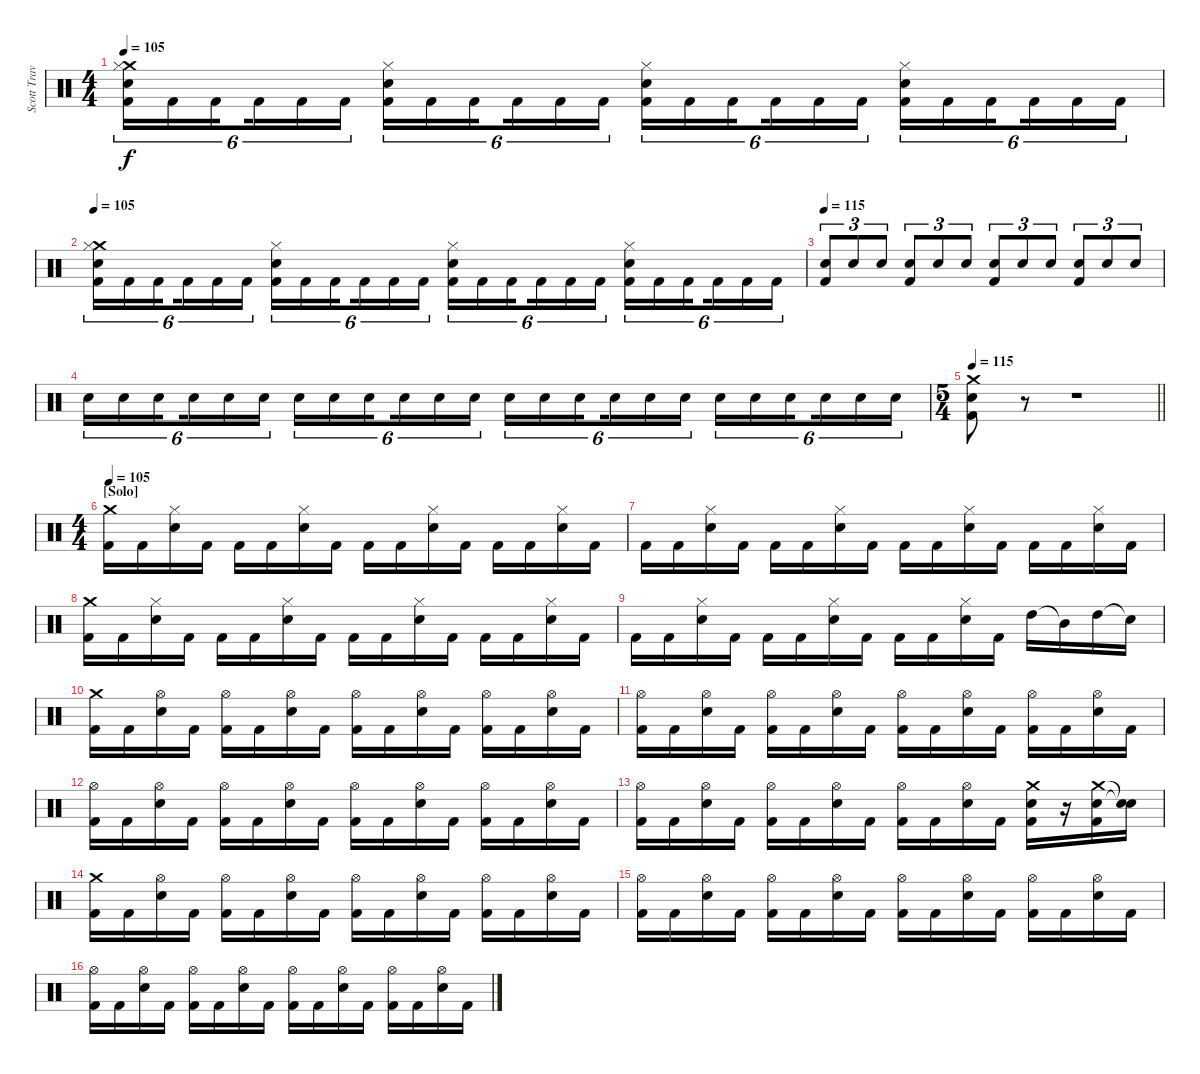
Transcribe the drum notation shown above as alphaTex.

\track ("Scott Travis" "Scott Trav") {instrument percussion}
\staff {score}
\articulation defaults
\ts (4 4)
\tempo 105
\clef neutral
\ks c
("Crash medium (hit)" "Hi-Hat (closed)" "Snare (hit) 2" "Kick (hit) 2").16{tu (6 4) dy f} "Kick (hit) 2".16{tu (6 4)} "Kick (hit) 2".16{tu (6 4) beam splitsecondary} "Kick (hit) 2".16{tu (6 4)} "Kick (hit) 2".16{tu (6 4)} "Kick (hit) 2".16{tu (6 4)} ("Hi-Hat (closed)" "Snare (hit) 2" "Kick (hit) 2").16{tu (6 4)} "Kick (hit) 2".16{tu (6 4)} "Kick (hit) 2".16{tu (6 4) beam splitsecondary} "Kick (hit) 2".16{tu (6 4)} "Kick (hit) 2".16{tu (6 4)} "Kick (hit) 2".16{tu (6 4)} ("Hi-Hat (closed)" "Snare (hit) 2" "Kick (hit) 2").16{tu (6 4)} "Kick (hit) 2".16{tu (6 4)} "Kick (hit) 2".16{tu (6 4) beam splitsecondary} "Kick (hit) 2".16{tu (6 4)} "Kick (hit) 2".16{tu (6 4)} "Kick (hit) 2".16{tu (6 4)} ("Hi-Hat (closed)" "Snare (hit) 2" "Kick (hit) 2").16{tu (6 4)} "Kick (hit) 2".16{tu (6 4)} "Kick (hit) 2".16{tu (6 4) beam splitsecondary} "Kick (hit) 2".16{tu (6 4)} "Kick (hit) 2".16{tu (6 4)} "Kick (hit) 2".16{tu (6 4)} |
\tempo 105
("Crash medium (hit)" "Hi-Hat (closed)" "Snare (hit) 2" "Kick (hit) 2").16{tu (6 4)} "Kick (hit) 2".16{tu (6 4)} "Kick (hit) 2".16{tu (6 4) beam splitsecondary} "Kick (hit) 2".16{tu (6 4)} "Kick (hit) 2".16{tu (6 4)} "Kick (hit) 2".16{tu (6 4)} ("Hi-Hat (closed)" "Snare (hit) 2" "Kick (hit) 2").16{tu (6 4)} "Kick (hit) 2".16{tu (6 4)} "Kick (hit) 2".16{tu (6 4) beam splitsecondary} "Kick (hit) 2".16{tu (6 4)} "Kick (hit) 2".16{tu (6 4)} "Kick (hit) 2".16{tu (6 4)} ("Hi-Hat (closed)" "Snare (hit) 2" "Kick (hit) 2").16{tu (6 4)} "Kick (hit) 2".16{tu (6 4)} "Kick (hit) 2".16{tu (6 4) beam splitsecondary} "Kick (hit) 2".16{tu (6 4)} "Kick (hit) 2".16{tu (6 4)} "Kick (hit) 2".16{tu (6 4)} ("Hi-Hat (closed)" "Snare (hit) 2" "Kick (hit) 2").16{tu (6 4)} "Kick (hit) 2".16{tu (6 4)} "Kick (hit) 2".16{tu (6 4) beam splitsecondary} "Kick (hit) 2".16{tu (6 4)} "Kick (hit) 2".16{tu (6 4)} "Kick (hit) 2".16{tu (6 4)} |
\tempo 115
("Kick (hit) 2" "Snare (hit) 2").8{tu (3 2)} "Snare (hit) 2".8{tu (3 2)} "Snare (hit) 2".8{tu (3 2)} ("Kick (hit) 2" "Snare (hit) 2").8{tu (3 2)} "Snare (hit) 2".8{tu (3 2)} "Snare (hit) 2".8{tu (3 2)} ("Kick (hit) 2" "Snare (hit) 2").8{tu (3 2)} "Snare (hit) 2".8{tu (3 2)} "Snare (hit) 2".8{tu (3 2)} ("Kick (hit) 2" "Snare (hit) 2").8{tu (3 2)} "Snare (hit) 2".8{tu (3 2)} "Snare (hit) 2".8{tu (3 2)} |
"Snare (hit) 2".16{tu (6 4)} "Snare (hit) 2".16{tu (6 4)} "Snare (hit) 2".16{tu (6 4) beam splitsecondary} "Snare (hit) 2".16{tu (6 4)} "Snare (hit) 2".16{tu (6 4)} "Snare (hit) 2".16{tu (6 4)} "Snare (hit) 2".16{tu (6 4)} "Snare (hit) 2".16{tu (6 4)} "Snare (hit) 2".16{tu (6 4) beam splitsecondary} "Snare (hit) 2".16{tu (6 4)} "Snare (hit) 2".16{tu (6 4)} "Snare (hit) 2".16{tu (6 4)} "Snare (hit) 2".16{tu (6 4)} "Snare (hit) 2".16{tu (6 4)} "Snare (hit) 2".16{tu (6 4) beam splitsecondary} "Snare (hit) 2".16{tu (6 4)} "Snare (hit) 2".16{tu (6 4)} "Snare (hit) 2".16{tu (6 4)} "Snare (hit) 2".16{tu (6 4)} "Snare (hit) 2".16{tu (6 4)} "Snare (hit) 2".16{tu (6 4) beam splitsecondary} "Snare (hit) 2".16{tu (6 4)} "Snare (hit) 2".16{tu (6 4)} "Snare (hit) 2".16{tu (6 4)} |
\ts (5 4)
\tempo 115
\barLineRight lightlight
("Crash medium (hit)" "Snare (hit) 2" "Kick (hit) 2").8 r.8 r.1 |
\ts (4 4)
\section ("" "[Solo]")
\tempo 105
("Crash medium (hit)" "Kick (hit) 2").16 "Kick (hit) 2".16 ("Hi-Hat (closed)" "Snare (hit) 2").16 "Kick (hit) 2".16 "Kick (hit) 2".16 "Kick (hit) 2".16 ("Hi-Hat (closed)" "Snare (hit) 2").16 "Kick (hit) 2".16 "Kick (hit) 2".16 "Kick (hit) 2".16 ("Hi-Hat (closed)" "Snare (hit) 2").16 "Kick (hit) 2".16 "Kick (hit) 2".16 "Kick (hit) 2".16 ("Hi-Hat (closed)" "Snare (hit) 2").16 "Kick (hit) 2".16 |
"Kick (hit) 2".16 "Kick (hit) 2".16 ("Hi-Hat (closed)" "Snare (hit) 2").16 "Kick (hit) 2".16 "Kick (hit) 2".16 "Kick (hit) 2".16 ("Hi-Hat (closed)" "Snare (hit) 2").16 "Kick (hit) 2".16 "Kick (hit) 2".16 "Kick (hit) 2".16 ("Hi-Hat (closed)" "Snare (hit) 2").16 "Kick (hit) 2".16 "Kick (hit) 2".16 "Kick (hit) 2".16 ("Hi-Hat (closed)" "Snare (hit) 2").16 "Kick (hit) 2".16 |
("Crash medium (hit)" "Kick (hit) 2").16 "Kick (hit) 2".16 ("Hi-Hat (closed)" "Snare (hit) 2").16 "Kick (hit) 2".16 "Kick (hit) 2".16 "Kick (hit) 2".16 ("Hi-Hat (closed)" "Snare (hit) 2").16 "Kick (hit) 2".16 "Kick (hit) 2".16 "Kick (hit) 2".16 ("Hi-Hat (closed)" "Snare (hit) 2").16 "Kick (hit) 2".16 "Kick (hit) 2".16 "Kick (hit) 2".16 ("Hi-Hat (closed)" "Snare (hit) 2").16 "Kick (hit) 2".16 |
"Kick (hit) 2".16 "Kick (hit) 2".16 ("Hi-Hat (closed)" "Snare (hit) 2").16 "Kick (hit) 2".16 "Kick (hit) 2".16 "Kick (hit) 2".16 ("Hi-Hat (closed)" "Snare (hit) 2").16 "Kick (hit) 2".16 "Kick (hit) 2".16 "Kick (hit) 2".16 ("Hi-Hat (closed)" "Snare (hit) 2").16 "Kick (hit) 2".16 "High Tom (hit)".16 "Mid Tom (hit)"{t}.16 "High Tom (hit)".16 "Snare (hit)"{t}.16 |
("Crash medium (hit)" "Kick (hit) 2").16 "Kick (hit) 2".16 ("Hi-Hat (open)" "Snare (hit) 2").16 "Kick (hit) 2".16 ("Hi-Hat (open)" "Kick (hit) 2").16 "Kick (hit) 2".16 ("Hi-Hat (open)" "Snare (hit) 2").16 "Kick (hit) 2".16 ("Hi-Hat (open)" "Kick (hit) 2").16 "Kick (hit) 2".16 ("Hi-Hat (open)" "Snare (hit) 2").16 "Kick (hit) 2".16 ("Hi-Hat (open)" "Kick (hit) 2").16 "Kick (hit) 2".16 ("Hi-Hat (open)" "Snare (hit) 2").16 "Kick (hit) 2".16 |
("Hi-Hat (open)" "Kick (hit) 2").16 "Kick (hit) 2".16 ("Hi-Hat (open)" "Snare (hit) 2").16 "Kick (hit) 2".16 ("Hi-Hat (open)" "Kick (hit) 2").16 "Kick (hit) 2".16 ("Hi-Hat (open)" "Snare (hit) 2").16 "Kick (hit) 2".16 ("Hi-Hat (open)" "Kick (hit) 2").16 "Kick (hit) 2".16 ("Hi-Hat (open)" "Snare (hit) 2").16 "Kick (hit) 2".16 ("Hi-Hat (open)" "Kick (hit) 2").16 "Kick (hit) 2".16 ("Hi-Hat (open)" "Snare (hit) 2").16 "Kick (hit) 2".16 |
("Hi-Hat (open)" "Kick (hit) 2").16 "Kick (hit) 2".16 ("Hi-Hat (open)" "Snare (hit) 2").16 "Kick (hit) 2".16 ("Hi-Hat (open)" "Kick (hit) 2").16 "Kick (hit) 2".16 ("Hi-Hat (open)" "Snare (hit) 2").16 "Kick (hit) 2".16 ("Hi-Hat (open)" "Kick (hit) 2").16 "Kick (hit) 2".16 ("Hi-Hat (open)" "Snare (hit) 2").16 "Kick (hit) 2".16 ("Hi-Hat (open)" "Kick (hit) 2").16 "Kick (hit) 2".16 ("Hi-Hat (open)" "Snare (hit) 2").16 "Kick (hit) 2".16 |
("Hi-Hat (open)" "Kick (hit) 2").16 "Kick (hit) 2".16 ("Hi-Hat (open)" "Snare (hit) 2").16 "Kick (hit) 2".16 ("Hi-Hat (open)" "Kick (hit) 2").16 "Kick (hit) 2".16 ("Hi-Hat (open)" "Snare (hit) 2").16 "Kick (hit) 2".16 ("Hi-Hat (open)" "Kick (hit) 2").16 "Kick (hit) 2".16 ("Hi-Hat (open)" "Snare (hit) 2").16 "Kick (hit) 2".16 ("Crash medium (hit)" "Snare (hit) 2" "Kick (hit) 2").16 r.16 ("Crash medium (hit)" "Snare (hit) 2" "Kick (hit) 2").16 ("Snare (hit)"{t} "Snare (hit)"{t}).16 |
("Crash medium (hit)" "Kick (hit) 2").16 "Kick (hit) 2".16 ("Hi-Hat (open)" "Snare (hit) 2").16 "Kick (hit) 2".16 ("Hi-Hat (open)" "Kick (hit) 2").16 "Kick (hit) 2".16 ("Hi-Hat (open)" "Snare (hit) 2").16 "Kick (hit) 2".16 ("Hi-Hat (open)" "Kick (hit) 2").16 "Kick (hit) 2".16 ("Hi-Hat (open)" "Snare (hit) 2").16 "Kick (hit) 2".16 ("Hi-Hat (open)" "Kick (hit) 2").16 "Kick (hit) 2".16 ("Hi-Hat (open)" "Snare (hit) 2").16 "Kick (hit) 2".16 |
("Hi-Hat (open)" "Kick (hit) 2").16 "Kick (hit) 2".16 ("Hi-Hat (open)" "Snare (hit) 2").16 "Kick (hit) 2".16 ("Hi-Hat (open)" "Kick (hit) 2").16 "Kick (hit) 2".16 ("Hi-Hat (open)" "Snare (hit) 2").16 "Kick (hit) 2".16 ("Hi-Hat (open)" "Kick (hit) 2").16 "Kick (hit) 2".16 ("Hi-Hat (open)" "Snare (hit) 2").16 "Kick (hit) 2".16 ("Hi-Hat (open)" "Kick (hit) 2").16 "Kick (hit) 2".16 ("Hi-Hat (open)" "Snare (hit) 2").16 "Kick (hit) 2".16 |
("Hi-Hat (open)" "Kick (hit) 2").16 "Kick (hit) 2".16 ("Hi-Hat (open)" "Snare (hit) 2").16 "Kick (hit) 2".16 ("Hi-Hat (open)" "Kick (hit) 2").16 "Kick (hit) 2".16 ("Hi-Hat (open)" "Snare (hit) 2").16 "Kick (hit) 2".16 ("Hi-Hat (open)" "Kick (hit) 2").16 "Kick (hit) 2".16 ("Hi-Hat (open)" "Snare (hit) 2").16 "Kick (hit) 2".16 ("Hi-Hat (open)" "Kick (hit) 2").16 "Kick (hit) 2".16 ("Hi-Hat (open)" "Snare (hit) 2").16 "Kick (hit) 2".16
